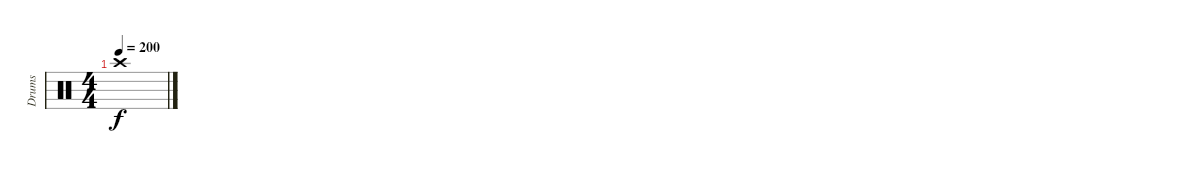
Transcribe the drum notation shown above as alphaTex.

\track ("Drums" "Drums") {instrument percussion}
\staff {score}
\articulation defaults
\ts (4 4)
\tempo 200
\clef neutral
\ks c "Crash high (hit)".1{dy f}
